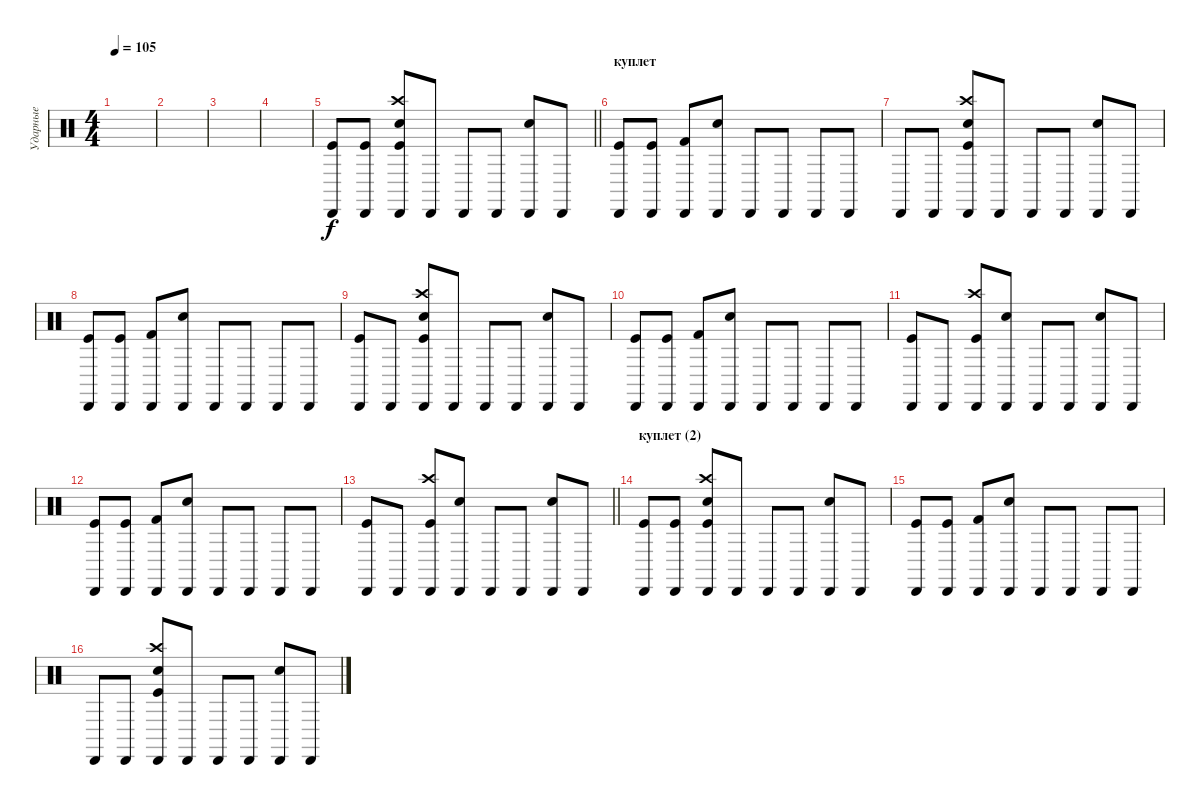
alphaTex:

\track ("Ударные" "Ударные") {instrument percussion}
\staff {score}
\articulation defaults
\ts (4 4)
\tempo 105
\clef neutral
\ks c
|
|
|
|
\barLineRight lightlight
("Cabasa (hit)" "Kick (hit)").8 ("Cabasa (hit)" "Kick (hit)").8 ("Cabasa (hit)" "Crash high (hit)" "Electric Snare (hit)" "Kick (hit)").8 "Cabasa (hit)".8 "Cabasa (hit)".8 "Cabasa (hit)".8 ("Cabasa (hit)" "Snare (hit) 2").8 "Cabasa (hit)".8 |
\section ("" "куплет")
("Cabasa (hit)" "Kick (hit)").8 ("Cabasa (hit)" "Kick (hit)").8 ("Cabasa (hit)" "Kick (hit) 2").8 ("Cabasa (hit)" "Electric Snare (hit)").8 "Cabasa (hit)".8 "Cabasa (hit)".8 "Cabasa (hit)".8 "Cabasa (hit)".8 |
"Cabasa (hit)".8 "Cabasa (hit)".8 ("Cabasa (hit)" "Crash high (hit)" "Electric Snare (hit)" "Kick (hit)").8 "Cabasa (hit)".8 "Cabasa (hit)".8 "Cabasa (hit)".8 ("Cabasa (hit)" "Snare (hit) 2").8 "Cabasa (hit)".8 |
("Cabasa (hit)" "Kick (hit)").8 ("Cabasa (hit)" "Kick (hit)").8 ("Cabasa (hit)" "Kick (hit) 2").8 ("Cabasa (hit)" "Electric Snare (hit)").8 "Cabasa (hit)".8 "Cabasa (hit)".8 "Cabasa (hit)".8 "Cabasa (hit)".8 |
("Cabasa (hit)" "Kick (hit)").8 "Cabasa (hit)".8 ("Cabasa (hit)" "Crash high (hit)" "Electric Snare (hit)" "Kick (hit)").8 "Cabasa (hit)".8 "Cabasa (hit)".8 "Cabasa (hit)".8 ("Cabasa (hit)" "Snare (hit) 2").8 "Cabasa (hit)".8 |
("Cabasa (hit)" "Kick (hit)").8 ("Cabasa (hit)" "Kick (hit)").8 ("Cabasa (hit)" "Kick (hit) 2").8 ("Cabasa (hit)" "Electric Snare (hit)").8 "Cabasa (hit)".8 "Cabasa (hit)".8 "Cabasa (hit)".8 "Cabasa (hit)".8 |
("Cabasa (hit)" "Kick (hit)").8 "Cabasa (hit)".8 ("Cabasa (hit)" "Crash high (hit)" "Kick (hit)").8 ("Cabasa (hit)" "Electric Snare (hit)").8 "Cabasa (hit)".8 "Cabasa (hit)".8 ("Cabasa (hit)" "Snare (hit) 2").8 "Cabasa (hit)".8 |
("Cabasa (hit)" "Kick (hit)").8 ("Cabasa (hit)" "Kick (hit)").8 ("Cabasa (hit)" "Kick (hit) 2").8 ("Cabasa (hit)" "Electric Snare (hit)").8 "Cabasa (hit)".8 "Cabasa (hit)".8 "Cabasa (hit)".8 "Cabasa (hit)".8 |
\barLineRight lightlight
("Cabasa (hit)" "Kick (hit)").8 "Cabasa (hit)".8 ("Cabasa (hit)" "Crash high (hit)" "Kick (hit)").8 ("Cabasa (hit)" "Electric Snare (hit)").8 "Cabasa (hit)".8 "Cabasa (hit)".8 ("Cabasa (hit)" "Snare (hit) 2").8 "Cabasa (hit)".8 |
\section ("" "куплет (2)")
("Cabasa (hit)" "Kick (hit)").8 ("Cabasa (hit)" "Kick (hit)").8 ("Cabasa (hit)" "Crash high (hit)" "Electric Snare (hit)" "Kick (hit)").8 "Cabasa (hit)".8 "Cabasa (hit)".8 "Cabasa (hit)".8 ("Cabasa (hit)" "Snare (hit) 2").8 "Cabasa (hit)".8 |
("Cabasa (hit)" "Kick (hit)").8 ("Cabasa (hit)" "Kick (hit)").8 ("Cabasa (hit)" "Kick (hit) 2").8 ("Cabasa (hit)" "Electric Snare (hit)").8 "Cabasa (hit)".8 "Cabasa (hit)".8 "Cabasa (hit)".8 "Cabasa (hit)".8 |
"Cabasa (hit)".8 "Cabasa (hit)".8 ("Cabasa (hit)" "Crash high (hit)" "Electric Snare (hit)" "Kick (hit)").8 "Cabasa (hit)".8 "Cabasa (hit)".8 "Cabasa (hit)".8 ("Cabasa (hit)" "Snare (hit) 2").8 "Cabasa (hit)".8
